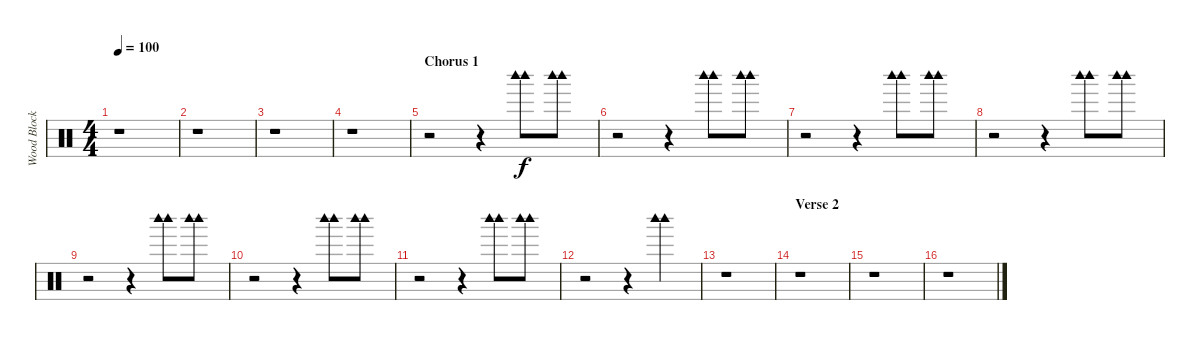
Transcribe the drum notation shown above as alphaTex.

\track ("Wood Block - Chad" "Wood Block") {instrument percussion}
\staff {score}
\articulation defaults
\ts (4 4)
\tempo 100
\clef neutral
\ks c
r.1{dy f} |
r.1 |
r.1 |
r.1 |
\section ("" "Chorus 1")
r.2 r.4 ("Woodblock high (hit)" "Woodblock high (hit)").8 ("Woodblock high (hit)" "Woodblock high (hit)").8 |
r.2 r.4 ("Woodblock high (hit)" "Woodblock high (hit)").8 ("Woodblock high (hit)" "Woodblock high (hit)").8 |
r.2 r.4 ("Woodblock high (hit)" "Woodblock high (hit)").8 ("Woodblock high (hit)" "Woodblock high (hit)").8 |
r.2 r.4 ("Woodblock high (hit)" "Woodblock high (hit)").8 ("Woodblock high (hit)" "Woodblock high (hit)").8 |
r.2 r.4 ("Woodblock high (hit)" "Woodblock high (hit)").8 ("Woodblock high (hit)" "Woodblock high (hit)").8 |
r.2 r.4 ("Woodblock high (hit)" "Woodblock high (hit)").8 ("Woodblock high (hit)" "Woodblock high (hit)").8 |
r.2 r.4 ("Woodblock high (hit)" "Woodblock high (hit)").8 ("Woodblock high (hit)" "Woodblock high (hit)").8 |
r.2 r.4 ("Woodblock high (hit)" "Woodblock high (hit)").4 |
r.1 |
\section ("" "Verse 2")
r.1 |
r.1 |
r.1
